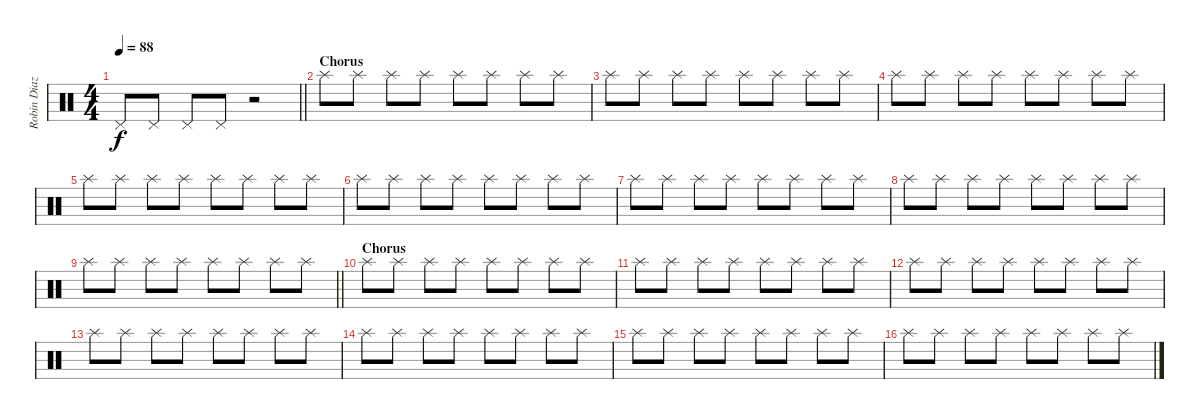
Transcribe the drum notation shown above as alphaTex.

\track ("Robin Diaz (Drums)" "Robin Diaz") {instrument percussion}
\staff {score}
\articulation defaults
\ts (4 4)
\tempo 88
\clef neutral
\barLineRight lightlight
\ks c "Pedal Hi-Hat (hit)".8{dy f} "Pedal Hi-Hat (hit)".8 "Pedal Hi-Hat (hit)".8 "Pedal Hi-Hat (hit)".8
r.2 |
\section ("" "Chorus")
"Splash (hit)".8 "Splash (hit)".8 "Splash (hit)".8 "Splash (hit)".8 "Splash (hit)".8 "Splash (hit)".8 "Splash (hit)".8 "Splash (hit)".8 |
"Splash (hit)".8 "Splash (hit)".8 "Splash (hit)".8 "Splash (hit)".8 "Splash (hit)".8 "Splash (hit)".8 "Splash (hit)".8 "Splash (hit)".8 |
"Splash (hit)".8 "Splash (hit)".8 "Splash (hit)".8 "Splash (hit)".8 "Splash (hit)".8 "Splash (hit)".8 "Splash (hit)".8 "Splash (hit)".8 |
"Splash (hit)".8 "Splash (hit)".8 "Splash (hit)".8 "Splash (hit)".8 "Splash (hit)".8 "Splash (hit)".8 "Splash (hit)".8 "Splash (hit)".8 |
"Splash (hit)".8 "Splash (hit)".8 "Splash (hit)".8 "Splash (hit)".8 "Splash (hit)".8 "Splash (hit)".8 "Splash (hit)".8 "Splash (hit)".8 |
"Splash (hit)".8 "Splash (hit)".8 "Splash (hit)".8 "Splash (hit)".8 "Splash (hit)".8 "Splash (hit)".8 "Splash (hit)".8 "Splash (hit)".8 |
"Splash (hit)".8 "Splash (hit)".8 "Splash (hit)".8 "Splash (hit)".8 "Splash (hit)".8 "Splash (hit)".8 "Splash (hit)".8 "Splash (hit)".8 |
\barLineRight lightlight "Splash (hit)".8 "Splash (hit)".8 "Splash (hit)".8 "Splash (hit)".8 "Splash (hit)".8 "Splash (hit)".8 "Splash (hit)".8 "Splash (hit)".8
|
\section ("" "Chorus")
"Splash (hit)".8 "Splash (hit)".8 "Splash (hit)".8 "Splash (hit)".8 "Splash (hit)".8 "Splash (hit)".8 "Splash (hit)".8 "Splash (hit)".8 |
"Splash (hit)".8 "Splash (hit)".8 "Splash (hit)".8 "Splash (hit)".8 "Splash (hit)".8 "Splash (hit)".8 "Splash (hit)".8 "Splash (hit)".8 |
"Splash (hit)".8 "Splash (hit)".8 "Splash (hit)".8 "Splash (hit)".8 "Splash (hit)".8 "Splash (hit)".8 "Splash (hit)".8 "Splash (hit)".8 |
"Splash (hit)".8 "Splash (hit)".8 "Splash (hit)".8 "Splash (hit)".8 "Splash (hit)".8 "Splash (hit)".8 "Splash (hit)".8 "Splash (hit)".8 |
"Splash (hit)".8 "Splash (hit)".8 "Splash (hit)".8 "Splash (hit)".8 "Splash (hit)".8 "Splash (hit)".8 "Splash (hit)".8 "Splash (hit)".8 |
"Splash (hit)".8 "Splash (hit)".8 "Splash (hit)".8 "Splash (hit)".8 "Splash (hit)".8 "Splash (hit)".8 "Splash (hit)".8 "Splash (hit)".8 |
"Splash (hit)".8 "Splash (hit)".8 "Splash (hit)".8 "Splash (hit)".8 "Splash (hit)".8 "Splash (hit)".8 "Splash (hit)".8 "Splash (hit)".8
